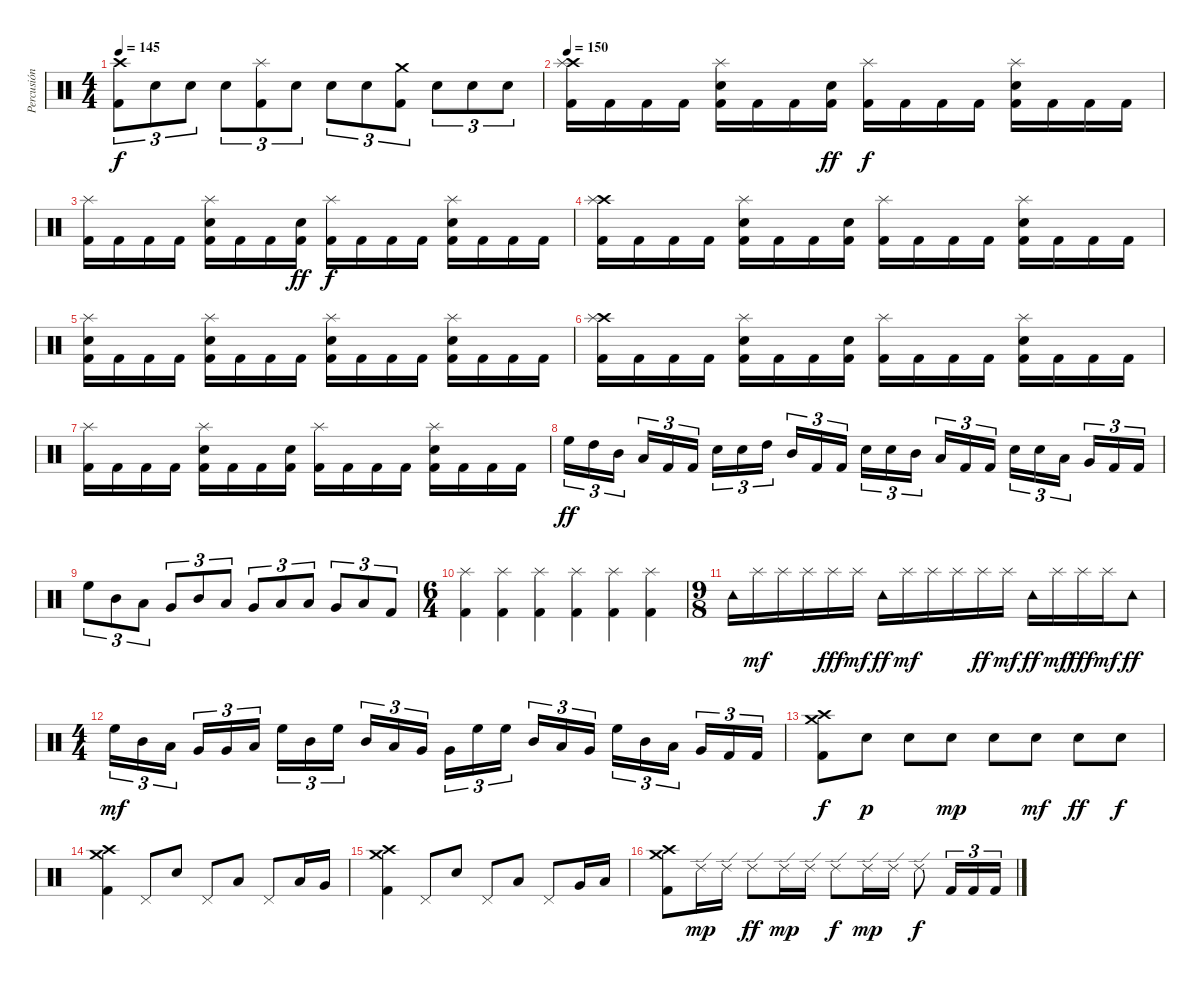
\track ("Percusión" "Percusión") {instrument percussion}
\staff {score}
\articulation defaults
\ts (4 4)
\tempo 145
\clef neutral
\ks c
("Crash high (hit)" "Kick (hit) 2").8{tu (3 2) dy f} "Electric Snare (hit)".8{tu (3 2)} "Electric Snare (hit)".8{tu (3 2)} "Electric Snare (hit)".8{tu (3 2)} ("Splash (hit)" "Kick (hit) 2").8{tu (3 2)} "Electric Snare (hit)".8{tu (3 2)} "Electric Snare (hit)".8{tu (3 2)} "Electric Snare (hit)".8{tu (3 2)} ("Crash medium (hit)" "Kick (hit) 2").8{tu (3 2)} "Electric Snare (hit)".8{tu (3 2)} "Electric Snare (hit)".8{tu (3 2)} "Electric Snare (hit)".8{tu (3 2)} |
\tempo 150
("Crash high (hit)" "Splash (hit)" "Kick (hit) 2").16 "Kick (hit) 2".16 "Kick (hit) 2".16 "Kick (hit) 2".16 ("Splash (hit)" "Electric Snare (hit)" "Kick (hit) 2").16 "Kick (hit) 2".16 "Kick (hit) 2".16 ("Electric Snare (hit)" "Kick (hit) 2").16{dy ff} ("Splash (hit)" "Kick (hit) 2").16{dy f} "Kick (hit) 2".16 "Kick (hit) 2".16 "Kick (hit) 2".16 ("Splash (hit)" "Electric Snare (hit)" "Kick (hit) 2").16 "Kick (hit) 2".16 "Kick (hit) 2".16 "Kick (hit) 2".16 |
("Splash (hit)" "Kick (hit) 2").16 "Kick (hit) 2".16 "Kick (hit) 2".16 "Kick (hit) 2".16 ("Splash (hit)" "Electric Snare (hit)" "Kick (hit) 2").16 "Kick (hit) 2".16 "Kick (hit) 2".16 ("Electric Snare (hit)" "Kick (hit) 2").16{dy ff} ("Splash (hit)" "Kick (hit) 2").16{dy f} "Kick (hit) 2".16 "Kick (hit) 2".16 "Kick (hit) 2".16 ("Splash (hit)" "Electric Snare (hit)" "Kick (hit) 2").16 "Kick (hit) 2".16 "Kick (hit) 2".16 "Kick (hit) 2".16 |
("Crash high (hit)" "Splash (hit)" "Kick (hit) 2").16 "Kick (hit) 2".16 "Kick (hit) 2".16 "Kick (hit) 2".16 ("Splash (hit)" "Electric Snare (hit)" "Kick (hit) 2").16 "Kick (hit) 2".16 "Kick (hit) 2".16 ("Electric Snare (hit)" "Kick (hit) 2").16 ("Splash (hit)" "Kick (hit) 2").16 "Kick (hit) 2".16 "Kick (hit) 2".16 "Kick (hit) 2".16 ("Splash (hit)" "Electric Snare (hit)" "Kick (hit) 2").16 "Kick (hit) 2".16 "Kick (hit) 2".16 "Kick (hit) 2".16 |
("Splash (hit)" "Electric Snare (hit)" "Kick (hit) 2").16 "Kick (hit) 2".16 "Kick (hit) 2".16 "Kick (hit) 2".16 ("Splash (hit)" "Electric Snare (hit)" "Kick (hit) 2").16 "Kick (hit) 2".16 "Kick (hit) 2".16 "Kick (hit) 2".16 ("Splash (hit)" "Electric Snare (hit)" "Kick (hit) 2").16 "Kick (hit) 2".16 "Kick (hit) 2".16 "Kick (hit) 2".16 ("Splash (hit)" "Electric Snare (hit)" "Kick (hit) 2").16 "Kick (hit) 2".16 "Kick (hit) 2".16 "Kick (hit) 2".16 |
("Crash high (hit)" "Splash (hit)" "Kick (hit) 2").16 "Kick (hit) 2".16 "Kick (hit) 2".16 "Kick (hit) 2".16 ("Splash (hit)" "Electric Snare (hit)" "Kick (hit) 2").16 "Kick (hit) 2".16 "Kick (hit) 2".16 ("Electric Snare (hit)" "Kick (hit) 2").16 ("Splash (hit)" "Kick (hit) 2").16 "Kick (hit) 2".16 "Kick (hit) 2".16 "Kick (hit) 2".16 ("Splash (hit)" "Electric Snare (hit)" "Kick (hit) 2").16 "Kick (hit) 2".16 "Kick (hit) 2".16 "Kick (hit) 2".16 |
("Splash (hit)" "Kick (hit) 2").16 "Kick (hit) 2".16 "Kick (hit) 2".16 "Kick (hit) 2".16 ("Splash (hit)" "Electric Snare (hit)" "Kick (hit) 2").16 "Kick (hit) 2".16 "Kick (hit) 2".16 ("Electric Snare (hit)" "Kick (hit) 2").16 ("Splash (hit)" "Kick (hit) 2").16 "Kick (hit) 2".16 "Kick (hit) 2".16 "Kick (hit) 2".16 ("Splash (hit)" "Electric Snare (hit)" "Kick (hit) 2").16 "Kick (hit) 2".16 "Kick (hit) 2".16 "Kick (hit) 2".16 |
"High Floor Tom (hit)".16{tu (3 2) dy ff} "High Tom (hit)".16{tu (3 2)} "Mid Tom (hit)".16{tu (3 2) beam splitsecondary} "Low Tom (hit)".16{tu (3 2)} "Kick (hit) 2".16{tu (3 2)} "Kick (hit) 2".16{tu (3 2)} "Electric Snare (hit)".16{tu (3 2)} "Electric Snare (hit)".16{tu (3 2)} "High Tom (hit)".16{tu (3 2) beam splitsecondary} "Mid Tom (hit)".16{tu (3 2)} "Kick (hit) 2".16{tu (3 2)} "Kick (hit) 2".16{tu (3 2)} "Electric Snare (hit)".16{tu (3 2)} "Electric Snare (hit)".16{tu (3 2)} "Mid Tom (hit)".16{tu (3 2) beam splitsecondary} "Low Tom (hit)".16{tu (3 2)} "Kick (hit) 2".16{tu (3 2)} "Kick (hit) 2".16{tu (3 2)} "Electric Snare (hit)".16{tu (3 2)} "Electric Snare (hit)".16{tu (3 2)} "Low Tom (hit)".16{tu (3 2) beam splitsecondary} "Very Low Tom (hit)".16{tu (3 2)} "Kick (hit) 2".16{tu (3 2)} "Kick (hit) 2".16{tu (3 2)} |
"High Floor Tom (hit)".8{tu (3 2)} "Mid Tom (hit)".8{tu (3 2)} "Low Tom (hit)".8{tu (3 2)} "Very Low Tom (hit)".8{tu (3 2)} "Mid Tom (hit)".8{tu (3 2)} "Low Tom (hit)".8{tu (3 2)} "Very Low Tom (hit)".8{tu (3 2)} "Low Floor Tom (hit)".8{tu (3 2)} "Low Tom (hit)".8{tu (3 2)} "Very Low Tom (hit)".8{tu (3 2)} "Low Floor Tom (hit)".8{tu (3 2)} "Kick (hit) 2".8{tu (3 2)} |
\ts (6 4)
("Splash (hit)" "Kick (hit) 2").4 ("Splash (hit)" "Kick (hit) 2").4 ("Splash (hit)" "Kick (hit) 2").4 ("Splash (hit)" "Kick (hit) 2").4 ("Splash (hit)" "Kick (hit) 2").4 ("Splash (hit)" "Kick (hit) 2").4 |
\ts (9 8)
"Tambourine (hit)".16 "Splash (hit)".16{dy mf} "Splash (hit)".16 "Splash (hit)".16 "Splash (hit)".16{dy fff} "Splash (hit)".16{dy mf} "Tambourine (hit)".16{dy ff} "Splash (hit)".16{dy mf} "Splash (hit)".16 "Splash (hit)".16 "Splash (hit)".16{dy ff} "Splash (hit)".16{dy mf} "Tambourine (hit)".16{dy ff} "Splash (hit)".16{dy mf} "Splash (hit)".16{dy fff} "Splash (hit)".16{dy mf} "Tambourine (hit)".8{dy ff} |
\ts (4 4)
"High Floor Tom (hit)".16{tu (3 2) dy mf} "Mid Tom (hit)".16{tu (3 2)} "Low Tom (hit)".16{tu (3 2) beam splitsecondary} "Very Low Tom (hit)".16{tu (3 2)} "Very Low Tom (hit)".16{tu (3 2)} "Low Floor Tom (hit)".16{tu (3 2)} "High Floor Tom (hit)".16{tu (3 2)} "Mid Tom (hit)".16{tu (3 2)} "High Floor Tom (hit)".16{tu (3 2) beam splitsecondary} "Mid Tom (hit)".16{tu (3 2)} "Low Tom (hit)".16{tu (3 2)} "Very Low Tom (hit)".16{tu (3 2)} "Very Low Tom (hit)".16{tu (3 2)} "High Floor Tom (hit)".16{tu (3 2)} "High Floor Tom (hit)".16{tu (3 2) beam splitsecondary} "Mid Tom (hit)".16{tu (3 2)} "Low Tom (hit)".16{tu (3 2)} "Very Low Tom (hit)".16{tu (3 2)} "High Floor Tom (hit)".16{tu (3 2)} "Mid Tom (hit)".16{tu (3 2)} "Low Tom (hit)".16{tu (3 2) beam splitsecondary} "Very Low Tom (hit)".16{tu (3 2)} "Kick (hit) 2".16{tu (3 2)} "Kick (hit) 2".16{tu (3 2)} |
("Crash high (hit)" "Crash medium (hit)" "Kick (hit) 2").8{dy f} "Electric Snare (hit)".8{dy p} "Electric Snare (hit)".8 "Electric Snare (hit)".8{dy mp} "Electric Snare (hit)".8 "Electric Snare (hit)".8{dy mf} "Electric Snare (hit)".8{dy ff} "Electric Snare (hit)".8{dy f} |
("Crash high (hit)" "Crash medium (hit)" "Kick (hit) 2").4 "Pedal Hi-Hat (hit)".8 "Electric Snare (hit)".8 "Pedal Hi-Hat (hit)".8 "Low Tom (hit)".8 "Pedal Hi-Hat (hit)".8 "Low Tom (hit)".16 "Very Low Tom (hit)".16 |
("Crash high (hit)" "Crash medium (hit)" "Kick (hit) 2").4 "Pedal Hi-Hat (hit)".8 "Electric Snare (hit)".8 "Pedal Hi-Hat (hit)".8 "Low Tom (hit)".8 "Pedal Hi-Hat (hit)".8 "Very Low Tom (hit)".16 "Low Floor Tom (hit)".16 |
("Crash high (hit)" "Crash medium (hit)" "Kick (hit) 2").8 "Ride (edge) 2".16{dy mp} "Ride (edge) 2".16 "Ride (edge) 2".8{dy ff} "Ride (edge) 2".16{dy mp} "Ride (edge) 2".16 "Ride (edge) 2".8{dy f} "Ride (edge) 2".16{dy mp} "Ride (edge) 2".16 "Ride (edge) 2".8{dy f} "Kick (hit) 2".16{tu (3 2)} "Kick (hit) 2".16{tu (3 2)} "Kick (hit) 2".16{tu (3 2)}
